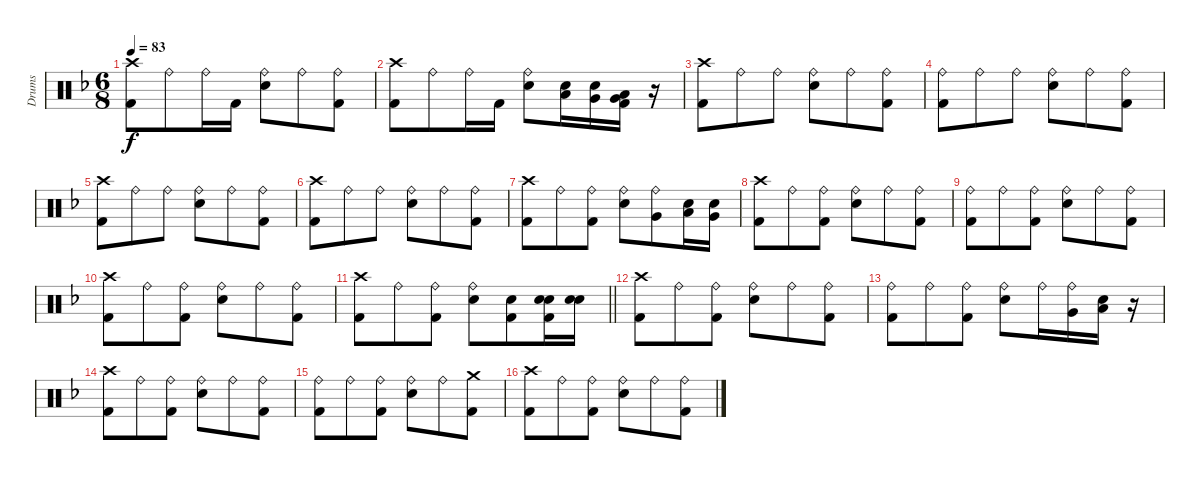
\track ("Drums" "Drums") {instrument percussion}
\staff {score}
\articulation defaults
\ts (6 8)
\tempo 83
\clef neutral
\ks f
("Crash high (hit)" "Kick (hit) 2").8{dy f} "Ride (bell)".8 "Ride (bell)".16 "Kick (hit) 2".16 ("Ride (bell)" "Snare (hit) 2").8 "Ride (bell)".8 ("Ride (bell)" "Kick (hit) 2").8 |
("Crash high (hit)" "Kick (hit) 2").8 "Ride (bell)".8 "Ride (bell)".16 "Kick (hit) 2".16 ("Ride (bell)" "Snare (hit) 2").8 ("Low Tom (hit)" "Snare (hit) 2").16 ("Very Low Tom (hit)" "Snare (hit) 2").16 ("Very Low Tom (hit)" "Low Floor Tom (hit)" "Kick (hit) 2").16 r.16 |
("Crash high (hit)" "Kick (hit) 2").8 "Ride (bell)".8 "Ride (bell)".8 ("Ride (bell)" "Snare (hit) 2").8 "Ride (bell)".8 ("Ride (bell)" "Kick (hit) 2").8 |
("Ride (bell)" "Kick (hit) 2").8 "Ride (bell)".8 "Ride (bell)".8 ("Ride (bell)" "Snare (hit) 2").8 "Ride (bell)".8 ("Ride (bell)" "Kick (hit) 2").8 |
("Crash high (hit)" "Kick (hit) 2").8 "Ride (bell)".8 "Ride (bell)".8 ("Ride (bell)" "Snare (hit) 2").8 "Ride (bell)".8 ("Ride (bell)" "Kick (hit) 2").8 |
("Crash high (hit)" "Kick (hit) 2").8 "Ride (bell)".8 "Ride (bell)".8 ("Ride (bell)" "Snare (hit) 2").8 "Ride (bell)".8 ("Ride (bell)" "Kick (hit) 2").8 |
("Crash high (hit)" "Kick (hit) 2").8 "Ride (bell)".8 ("Ride (bell)" "Kick (hit) 2").8 ("Ride (bell)" "Snare (hit) 2").8 ("Ride (bell)" "Very Low Tom (hit)").8 ("Low Tom (hit)" "Snare (hit) 2").16 ("Very Low Tom (hit)" "Snare (hit) 2").16 |
("Crash high (hit)" "Kick (hit) 2").8 "Ride (bell)".8 ("Ride (bell)" "Kick (hit) 2").8 ("Ride (bell)" "Snare (hit) 2").8 "Ride (bell)".8 ("Ride (bell)" "Kick (hit) 2").8 |
("Ride (bell)" "Kick (hit) 2").8 "Ride (bell)".8 ("Ride (bell)" "Kick (hit) 2").8 ("Ride (bell)" "Snare (hit) 2").8 "Ride (bell)".8 ("Ride (bell)" "Kick (hit) 2").8 |
("Crash high (hit)" "Kick (hit) 2").8 "Ride (bell)".8 ("Ride (bell)" "Kick (hit) 2").8 ("Ride (bell)" "Snare (hit) 2").8 "Ride (bell)".8 ("Ride (bell)" "Kick (hit) 2").8 |
\barLineRight lightlight
("Crash high (hit)" "Kick (hit) 2").8 "Ride (bell)".8 ("Ride (bell)" "Kick (hit) 2").8 ("Ride (bell)" "Snare (hit) 2").8 ("Snare (hit) 2" "Kick (hit) 2").8 ("Snare (hit) 2" "Snare (hit) 2" "Kick (hit) 2").16 ("Snare (hit) 2" "Snare (hit) 2").16 |
("Crash high (hit)" "Kick (hit) 2").8 "Ride (bell)".8 ("Ride (bell)" "Kick (hit) 2").8 ("Ride (bell)" "Snare (hit) 2").8 "Ride (bell)".8 ("Ride (bell)" "Kick (hit) 2").8 |
("Ride (bell)" "Kick (hit) 2").8 "Ride (bell)".8 ("Ride (bell)" "Kick (hit) 2").8 ("Ride (bell)" "Snare (hit) 2").8 "Ride (bell)".16 ("Ride (bell)" "Very Low Tom (hit)").16 ("Low Tom (hit)" "Snare (hit) 2").16 r.16 |
("Crash high (hit)" "Kick (hit) 2").8 "Ride (bell)".8 ("Ride (bell)" "Kick (hit) 2").8 ("Ride (bell)" "Snare (hit) 2").8 "Ride (bell)".8 ("Ride (bell)" "Kick (hit) 2").8 |
("Ride (bell)" "Kick (hit) 2").8 "Ride (bell)".8 ("Ride (bell)" "Kick (hit) 2").8 ("Ride (bell)" "Snare (hit) 2").8 "Ride (bell)".8 ("Crash medium (hit)" "Kick (hit) 2").8 |
("Crash high (hit)" "Kick (hit) 2").8 "Ride (bell)".8 ("Ride (bell)" "Kick (hit) 2").8 ("Ride (bell)" "Snare (hit) 2").8 "Ride (bell)".8 ("Ride (bell)" "Kick (hit) 2").8
